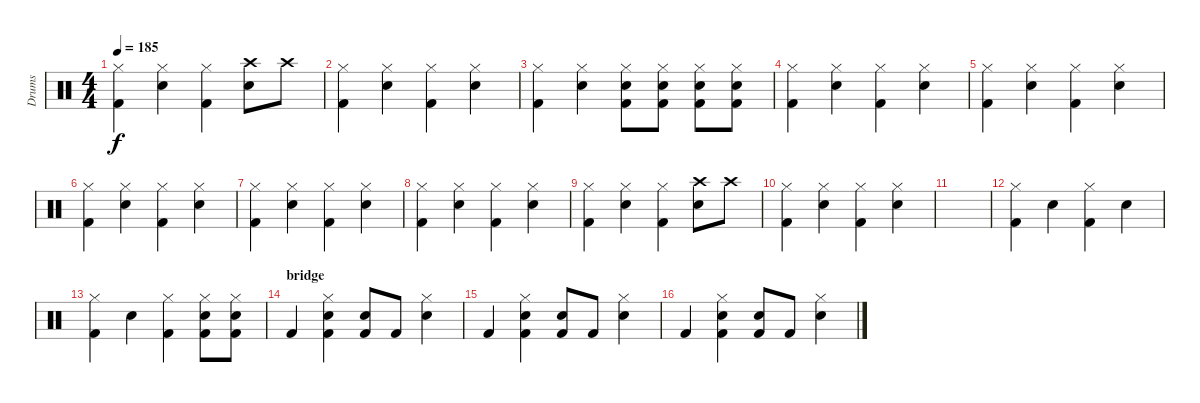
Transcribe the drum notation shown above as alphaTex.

\track ("Drums" "Drums") {instrument percussion}
\staff {score}
\articulation defaults
\ts (4 4)
\tempo 185
\clef neutral
\ks c
("Hi-Hat (closed)" "Kick (hit) 2").4{dy f} ("Hi-Hat (closed)" "Snare (hit) 2").4 ("Hi-Hat (closed)" "Kick (hit) 2").4 ("Crash high (hit)" "Snare (hit) 2").8 "Crash high (hit)".8 |
("Hi-Hat (closed)" "Kick (hit) 2").4 ("Hi-Hat (closed)" "Snare (hit) 2").4 ("Hi-Hat (closed)" "Kick (hit) 2").4 ("Hi-Hat (closed)" "Snare (hit) 2").4 |
("Hi-Hat (closed)" "Kick (hit) 2").4 ("Hi-Hat (closed)" "Snare (hit) 2").4 ("Hi-Hat (closed)" "Snare (hit) 2" "Kick (hit) 2").8 ("Hi-Hat (closed)" "Snare (hit) 2" "Kick (hit) 2").8 ("Hi-Hat (closed)" "Snare (hit) 2" "Kick (hit) 2").8 ("Hi-Hat (closed)" "Snare (hit) 2" "Kick (hit) 2").8 |
("Hi-Hat (closed)" "Kick (hit) 2").4 ("Hi-Hat (closed)" "Snare (hit) 2").4 ("Hi-Hat (closed)" "Kick (hit) 2").4 ("Hi-Hat (closed)" "Snare (hit) 2").4 |
("Hi-Hat (closed)" "Kick (hit) 2").4 ("Hi-Hat (closed)" "Snare (hit) 2").4 ("Hi-Hat (closed)" "Kick (hit) 2").4 ("Hi-Hat (closed)" "Snare (hit) 2").4 |
("Hi-Hat (closed)" "Kick (hit) 2").4 ("Hi-Hat (closed)" "Snare (hit) 2").4 ("Hi-Hat (closed)" "Kick (hit) 2").4 ("Hi-Hat (closed)" "Snare (hit) 2").4 |
("Hi-Hat (closed)" "Kick (hit) 2").4 ("Hi-Hat (closed)" "Snare (hit) 2").4 ("Hi-Hat (closed)" "Kick (hit) 2").4 ("Hi-Hat (closed)" "Snare (hit) 2").4 |
("Hi-Hat (closed)" "Kick (hit) 2").4 ("Hi-Hat (closed)" "Snare (hit) 2").4 ("Hi-Hat (closed)" "Kick (hit) 2").4 ("Hi-Hat (closed)" "Snare (hit) 2").4 |
("Hi-Hat (closed)" "Kick (hit) 2").4 ("Hi-Hat (closed)" "Snare (hit) 2").4 ("Hi-Hat (closed)" "Kick (hit) 2").4 ("Crash high (hit)" "Snare (hit) 2").8 "Crash high (hit)".8 |
("Hi-Hat (closed)" "Kick (hit) 2").4 ("Hi-Hat (closed)" "Snare (hit) 2").4 ("Hi-Hat (closed)" "Kick (hit) 2").4 ("Hi-Hat (closed)" "Snare (hit) 2").4 |
|
("Hi-Hat (closed)" "Kick (hit) 2").4 "Snare (hit) 2".4 ("Hi-Hat (closed)" "Kick (hit) 2").4 "Snare (hit) 2".4 |
("Hi-Hat (closed)" "Kick (hit) 2").4 "Snare (hit) 2".4 ("Hi-Hat (closed)" "Kick (hit) 2").4 ("Hi-Hat (closed)" "Snare (hit) 2" "Kick (hit) 2").8 ("Hi-Hat (closed)" "Snare (hit) 2" "Kick (hit) 2").8 |
\section ("" "bridge")
"Kick (hit) 2".4 ("Hi-Hat (closed)" "Snare (hit) 2" "Kick (hit) 2").4 ("Snare (hit) 2" "Kick (hit) 2").8 "Kick (hit) 2".8 ("Hi-Hat (closed)" "Snare (hit) 2").4 |
"Kick (hit) 2".4 ("Hi-Hat (closed)" "Snare (hit) 2" "Kick (hit) 2").4 ("Snare (hit) 2" "Kick (hit) 2").8 "Kick (hit) 2".8 ("Hi-Hat (closed)" "Snare (hit) 2").4 |
"Kick (hit) 2".4 ("Hi-Hat (closed)" "Snare (hit) 2" "Kick (hit) 2").4 ("Snare (hit) 2" "Kick (hit) 2").8 "Kick (hit) 2".8 ("Hi-Hat (closed)" "Snare (hit) 2").4
